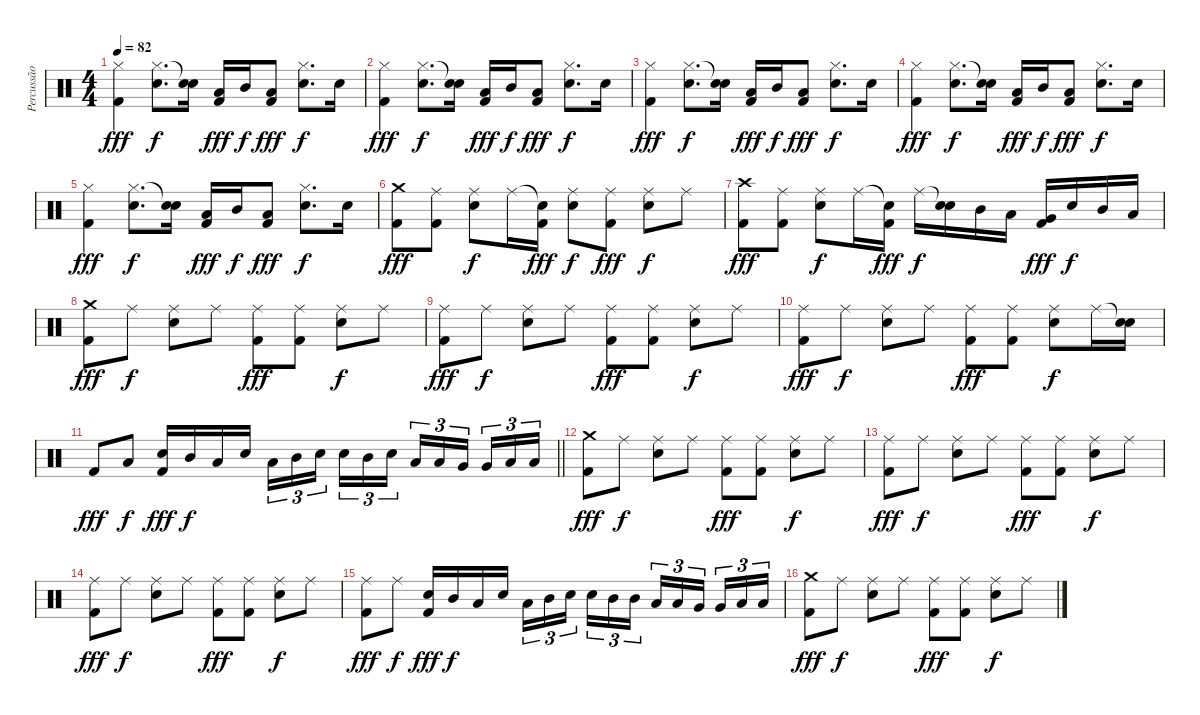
\track ("Percussão" "Percussão") {instrument percussion}
\staff {score}
\articulation defaults
\ts (4 4)
\tempo 82
\clef neutral
\ks c
("Hi-Hat (closed)" "Kick (hit) 2").4{dy fff} ("Hi-Hat (closed)" "Snare (hit) 2").8{d dy f} ("Snare (hit)"{t} "Snare (hit) 2").16 ("Low Tom (hit)" "Kick (hit) 2").16{dy fff} "Mid Tom (hit)".16{dy f} ("Low Tom (hit)" "Kick (hit) 2").8{dy fff} ("Hi-Hat (closed)" "Snare (hit) 2").8{d dy f} "Snare (hit) 2".16 |
("Hi-Hat (closed)" "Kick (hit) 2").4{dy fff} ("Hi-Hat (closed)" "Snare (hit) 2").8{d dy f} ("Snare (hit)"{t} "Snare (hit) 2").16 ("Low Tom (hit)" "Kick (hit) 2").16{dy fff} "Mid Tom (hit)".16{dy f} ("Low Tom (hit)" "Kick (hit) 2").8{dy fff} ("Hi-Hat (closed)" "Snare (hit) 2").8{d dy f} "Snare (hit) 2".16 |
("Hi-Hat (closed)" "Kick (hit) 2").4{dy fff} ("Hi-Hat (closed)" "Snare (hit) 2").8{d dy f} ("Snare (hit)"{t} "Snare (hit) 2").16 ("Low Tom (hit)" "Kick (hit) 2").16{dy fff} "Mid Tom (hit)".16{dy f} ("Low Tom (hit)" "Kick (hit) 2").8{dy fff} ("Hi-Hat (closed)" "Snare (hit) 2").8{d dy f} "Snare (hit) 2".16 |
("Hi-Hat (closed)" "Kick (hit) 2").4{dy fff} ("Hi-Hat (closed)" "Snare (hit) 2").8{d dy f} ("Snare (hit)"{t} "Snare (hit) 2").16 ("Low Tom (hit)" "Kick (hit) 2").16{dy fff} "Mid Tom (hit)".16{dy f} ("Low Tom (hit)" "Kick (hit) 2").8{dy fff} ("Hi-Hat (closed)" "Snare (hit) 2").8{d dy f} "Snare (hit) 2".16 |
("Hi-Hat (closed)" "Kick (hit) 2").4{dy fff} ("Hi-Hat (closed)" "Snare (hit) 2").8{d dy f} ("Snare (hit)"{t} "Snare (hit) 2").16 ("Low Tom (hit)" "Kick (hit) 2").16{dy fff} "Mid Tom (hit)".16{dy f} ("Low Tom (hit)" "Kick (hit) 2").8{dy fff} ("Hi-Hat (closed)" "Snare (hit) 2").8{d dy f} "Snare (hit) 2".16 |
("Crash medium (hit)" "Kick (hit) 2").8{dy fff} ("Ride (middle)" "Kick (hit) 2").8 ("Ride (middle)" "Snare (hit) 2").8{dy f} "Ride (middle)".16 ("Snare (hit)"{t} "Kick (hit) 2").16{dy fff} ("Ride (middle)" "Snare (hit) 2").8{dy f} ("Ride (middle)" "Kick (hit) 2").8{dy fff} ("Ride (middle)" "Snare (hit) 2").8{dy f} "Ride (middle)".8 |
("Crash high (hit)" "Kick (hit) 2").8{dy fff} ("Ride (middle)" "Kick (hit) 2").8 ("Ride (middle)" "Snare (hit) 2").8{dy f} "Ride (middle)".16 ("Snare (hit)"{t} "Kick (hit) 2").16{dy fff} "Ride (middle)".16{dy f} ("Snare (hit)"{t} "Snare (hit) 2").16 "Mid Tom (hit)".16 "Low Tom (hit)".16 ("Very Low Tom (hit)" "Kick (hit) 2").16{dy fff} "Snare (hit) 2".16{dy f} "Mid Tom (hit)".16 "Low Tom (hit)".16 |
("Crash medium (hit)" "Kick (hit) 2").8{dy fff} "Ride (middle)".8{dy f} ("Ride (middle)" "Snare (hit) 2").8 "Ride (middle)".8 ("Ride (middle)" "Kick (hit) 2").8{dy fff} ("Ride (middle)" "Kick (hit) 2").8 ("Ride (middle)" "Snare (hit) 2").8{dy f} "Ride (middle)".8 |
("Ride (middle)" "Kick (hit) 2").8{dy fff} "Ride (middle)".8{dy f} ("Ride (middle)" "Snare (hit) 2").8 "Ride (middle)".8 ("Ride (middle)" "Kick (hit) 2").8{dy fff} ("Ride (middle)" "Kick (hit) 2").8 ("Ride (middle)" "Snare (hit) 2").8{dy f} "Ride (middle)".8 |
("Ride (middle)" "Kick (hit) 2").8{dy fff} "Ride (middle)".8{dy f} ("Ride (middle)" "Snare (hit) 2").8 "Ride (middle)".8 ("Ride (middle)" "Kick (hit) 2").8{dy fff} ("Ride (middle)" "Kick (hit) 2").8 ("Ride (middle)" "Snare (hit) 2").8{dy f} "Ride (middle)".16 ("Snare (hit)"{t} "Snare (hit) 2").16 |
\barLineRight lightlight "Kick (hit) 2".8{dy fff} "Low Tom (hit)".8{dy f}
("Snare (hit) 2" "Kick (hit) 2").16{dy fff} "Mid Tom (hit)".16{dy f} "Low Tom (hit)".16 "Snare (hit) 2".16 "Low Tom (hit)".16{tu (3 2)} "Mid Tom (hit)".16{tu (3 2)} "Snare (hit) 2".16{tu (3 2) beam splitsecondary} "Snare (hit) 2".16{tu (3 2)} "Mid Tom (hit)".16{tu (3 2)} "Snare (hit) 2".16{tu (3 2)} "Low Tom (hit)".16{tu (3 2)} "Low Tom (hit)".16{tu (3 2)} "Very Low Tom (hit)".16{tu (3 2) beam splitsecondary} "Very Low Tom (hit)".16{tu (3 2)} "Low Floor Tom (hit)".16{tu (3 2)} "Low Floor Tom (hit)".16{tu (3 2)} |
("Crash medium (hit)" "Kick (hit) 2").8{dy fff} "Ride (middle)".8{dy f} ("Ride (middle)" "Snare (hit) 2").8 "Ride (middle)".8 ("Ride (middle)" "Kick (hit) 2").8{dy fff} ("Ride (middle)" "Kick (hit) 2").8 ("Ride (middle)" "Snare (hit) 2").8{dy f} "Ride (middle)".8 |
("Ride (middle)" "Kick (hit) 2").8{dy fff} "Ride (middle)".8{dy f} ("Ride (middle)" "Snare (hit) 2").8 "Ride (middle)".8 ("Ride (middle)" "Kick (hit) 2").8{dy fff} ("Ride (middle)" "Kick (hit) 2").8 ("Ride (middle)" "Snare (hit) 2").8{dy f} "Ride (middle)".8 |
("Ride (middle)" "Kick (hit) 2").8{dy fff} "Ride (middle)".8{dy f} ("Ride (middle)" "Snare (hit) 2").8 "Ride (middle)".8 ("Ride (middle)" "Kick (hit) 2").8{dy fff} ("Ride (middle)" "Kick (hit) 2").8 ("Ride (middle)" "Snare (hit) 2").8{dy f} "Ride (middle)".8 |
("Ride (middle)" "Kick (hit) 2").8{dy fff} "Ride (middle)".8{dy f} ("Snare (hit) 2" "Kick (hit) 2").16{dy fff} "Mid Tom (hit)".16{dy f} "Low Tom (hit)".16 "Snare (hit) 2".16 "Low Tom (hit)".16{tu (3 2)} "Mid Tom (hit)".16{tu (3 2)} "Snare (hit) 2".16{tu (3 2) beam splitsecondary} "Snare (hit) 2".16{tu (3 2)} "Mid Tom (hit)".16{tu (3 2)} "Mid Tom (hit)".16{tu (3 2)} "Low Tom (hit)".16{tu (3 2)} "Low Tom (hit)".16{tu (3 2)} "Very Low Tom (hit)".16{tu (3 2) beam splitsecondary} "Very Low Tom (hit)".16{tu (3 2)} "Low Floor Tom (hit)".16{tu (3 2)} "Low Floor Tom (hit)".16{tu (3 2)} |
("Crash medium (hit)" "Kick (hit) 2").8{dy fff} "Ride (middle)".8{dy f} ("Ride (middle)" "Snare (hit) 2").8 "Ride (middle)".8 ("Ride (middle)" "Kick (hit) 2").8{dy fff} ("Ride (middle)" "Kick (hit) 2").8 ("Ride (middle)" "Snare (hit) 2").8{dy f} "Ride (middle)".8
